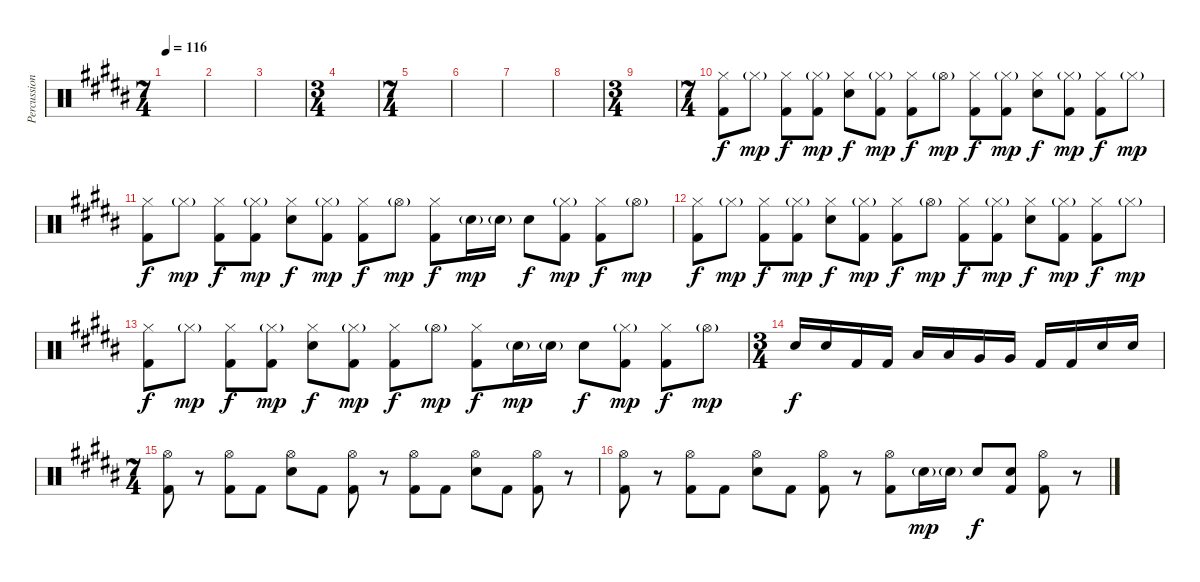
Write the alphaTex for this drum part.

\track ("Percussion" "Percussion") {instrument percussion}
\staff {score}
\articulation defaults
\ts (7 4)
\tempo 116
\clef neutral
\ks g#minor
|
|
|
\ts (3 4)
|
\ts (7 4)
|
|
|
|
\ts (3 4)
|
\ts (7 4)
("Hi-Hat (closed)" "Kick (hit) 2").8 "Hi-Hat (closed)"{g}.8{dy mp} ("Hi-Hat (closed)" "Kick (hit) 2").8{dy f} ("Hi-Hat (closed)"{g} "Kick (hit) 2").8{dy mp} ("Hi-Hat (closed)" "Electric Snare (hit)").8{dy f} ("Hi-Hat (closed)"{g} "Kick (hit) 2").8{dy mp} ("Hi-Hat (closed)" "Kick (hit) 2").8{dy f} "Hi-Hat (open)"{g}.8{dy mp} ("Hi-Hat (closed)" "Kick (hit) 2").8{dy f} ("Hi-Hat (closed)"{g} "Kick (hit) 2").8{dy mp} ("Hi-Hat (closed)" "Electric Snare (hit)").8{dy f} ("Hi-Hat (closed)"{g} "Kick (hit) 2").8{dy mp} ("Hi-Hat (closed)" "Kick (hit) 2").8{dy f} "Hi-Hat (closed)"{g}.8{dy mp} |
("Hi-Hat (closed)" "Kick (hit) 2").8{dy f} "Hi-Hat (closed)"{g}.8{dy mp} ("Hi-Hat (closed)" "Kick (hit) 2").8{dy f} ("Hi-Hat (closed)"{g} "Kick (hit) 2").8{dy mp} ("Hi-Hat (closed)" "Electric Snare (hit)").8{dy f} ("Hi-Hat (closed)"{g} "Kick (hit) 2").8{dy mp} ("Hi-Hat (closed)" "Kick (hit) 2").8{dy f} "Hi-Hat (open)"{g}.8{dy mp} ("Hi-Hat (closed)" "Kick (hit) 2").8{dy f} "Electric Snare (hit)"{g}.16{dy mp} "Electric Snare (hit)"{g}.16 "Electric Snare (hit)".8{dy f} ("Hi-Hat (closed)"{g} "Kick (hit) 2").8{dy mp} ("Hi-Hat (closed)" "Kick (hit) 2").8{dy f} "Hi-Hat (open)"{g}.8{dy mp} |
("Hi-Hat (closed)" "Kick (hit) 2").8{dy f} "Hi-Hat (closed)"{g}.8{dy mp} ("Hi-Hat (closed)" "Kick (hit) 2").8{dy f} ("Hi-Hat (closed)"{g} "Kick (hit) 2").8{dy mp} ("Hi-Hat (closed)" "Electric Snare (hit)").8{dy f} ("Hi-Hat (closed)"{g} "Kick (hit) 2").8{dy mp} ("Hi-Hat (closed)" "Kick (hit) 2").8{dy f} "Hi-Hat (open)"{g}.8{dy mp} ("Hi-Hat (closed)" "Kick (hit) 2").8{dy f} ("Hi-Hat (closed)"{g} "Kick (hit) 2").8{dy mp} ("Hi-Hat (closed)" "Electric Snare (hit)").8{dy f} ("Hi-Hat (closed)"{g} "Kick (hit) 2").8{dy mp} ("Hi-Hat (closed)" "Kick (hit) 2").8{dy f} "Hi-Hat (closed)"{g}.8{dy mp} |
("Hi-Hat (closed)" "Kick (hit) 2").8{dy f} "Hi-Hat (closed)"{g}.8{dy mp} ("Hi-Hat (closed)" "Kick (hit) 2").8{dy f} ("Hi-Hat (closed)"{g} "Kick (hit) 2").8{dy mp} ("Hi-Hat (closed)" "Electric Snare (hit)").8{dy f} ("Hi-Hat (closed)"{g} "Kick (hit) 2").8{dy mp} ("Hi-Hat (closed)" "Kick (hit) 2").8{dy f} "Hi-Hat (open)"{g}.8{dy mp} ("Hi-Hat (closed)" "Kick (hit) 2").8{dy f} "Electric Snare (hit)"{g}.16{dy mp} "Electric Snare (hit)"{g}.16 "Electric Snare (hit)".8{dy f} ("Hi-Hat (closed)"{g} "Kick (hit) 2").8{dy mp} ("Hi-Hat (closed)" "Kick (hit) 2").8{dy f} "Hi-Hat (open)"{g}.8{dy mp} |
\ts (3 4)
"Electric Snare (hit)".16{dy f} "Electric Snare (hit)".16 "Kick (hit) 2".16 "Kick (hit) 2".16 "Low Tom (hit)".16 "Low Tom (hit)".16 "Very Low Tom (hit)".16 "Very Low Tom (hit)".16 "Kick (hit) 2".16 "Kick (hit) 2".16 "Electric Snare (hit)".16 "Electric Snare (hit)".16 |
\ts (7 4)
("Hi-Hat (open)" "Kick (hit) 2").8 r.8 ("Hi-Hat (open)" "Kick (hit) 2").8 "Kick (hit) 2".8 ("Hi-Hat (open)" "Electric Snare (hit)").8 "Kick (hit) 2".8 ("Hi-Hat (open)" "Kick (hit) 2").8 r.8 ("Hi-Hat (open)" "Kick (hit) 2").8 "Kick (hit) 2".8 ("Hi-Hat (open)" "Electric Snare (hit)").8 "Kick (hit) 2".8 ("Hi-Hat (open)" "Kick (hit) 2").8 r.8 |
("Hi-Hat (open)" "Kick (hit) 2").8 r.8 ("Hi-Hat (open)" "Kick (hit) 2").8 "Kick (hit) 2".8 ("Hi-Hat (open)" "Electric Snare (hit)").8 "Kick (hit) 2".8 ("Hi-Hat (open)" "Kick (hit) 2").8 r.8 ("Hi-Hat (open)" "Kick (hit) 2").8 "Electric Snare (hit)"{g}.16{dy mp} "Electric Snare (hit)"{g}.16 "Electric Snare (hit)".8{dy f} ("Electric Snare (hit)" "Kick (hit) 2").8 ("Hi-Hat (open)" "Kick (hit) 2").8 r.8
